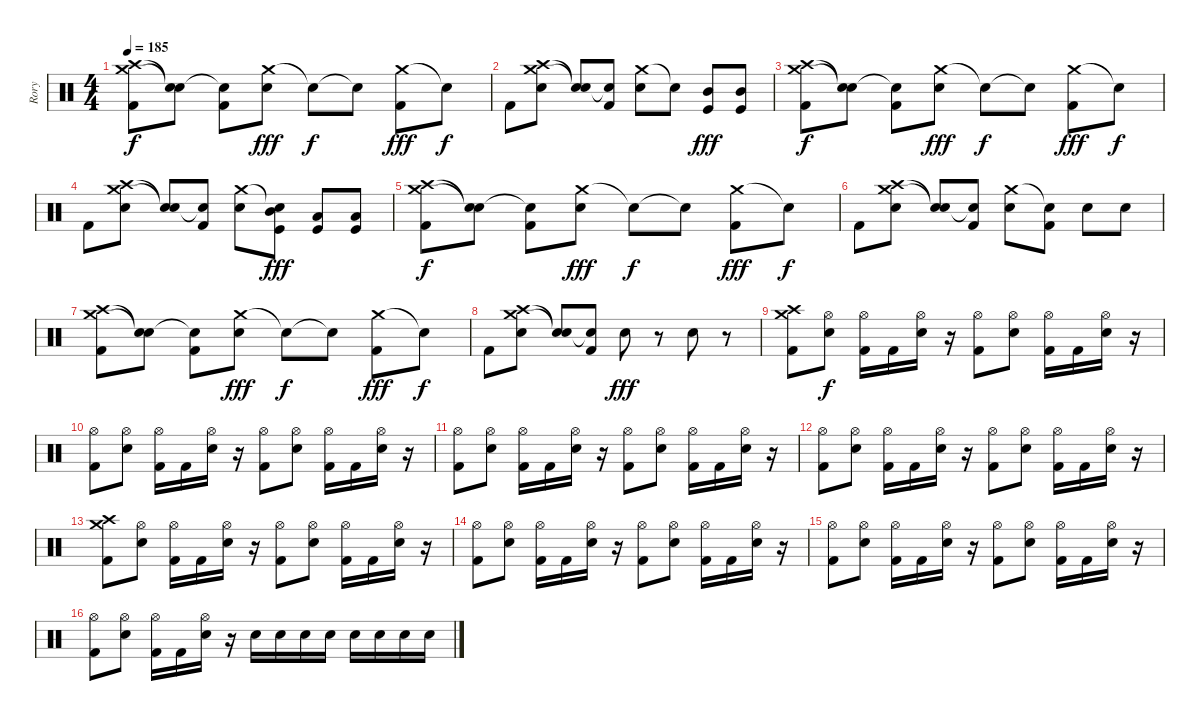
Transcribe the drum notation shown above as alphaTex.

\track ("Rory" "Rory") {instrument percussion}
\staff {score}
\articulation defaults
\ts (4 4)
\tempo 185
\clef neutral
\ks c
("Crash medium (hit)" "Crash high (hit)" "Kick (hit) 2").8{dy f} ("Snare (hit)"{t} "Snare (hit)"{t}).8 ("Snare (hit)"{t} "Kick (hit) 2").8 ("Crash medium (hit)" "Electric Snare (hit)").8{dy fff} "Snare (hit)"{t}.8{dy f} "Snare (hit)"{t}.8 ("Crash medium (hit)" "Kick (hit) 2").8{dy fff} "Snare (hit)"{t}.8{dy f} |
"Kick (hit) 2".8 ("Crash medium (hit)" "Crash high (hit)" "Electric Snare (hit)").8 ("Snare (hit)"{t} "Snare (hit)"{t}).8 ("Snare (hit)"{t} "Kick (hit) 2").8 ("Crash medium (hit)" "Electric Snare (hit)").8 "Snare (hit)"{t}.8 ("Mid Tom (hit)" "Kick (hit)").8{dy fff} ("Mid Tom (hit)" "Kick (hit)").8 |
("Crash medium (hit)" "Crash high (hit)" "Kick (hit) 2").8{dy f} ("Snare (hit)"{t} "Snare (hit)"{t}).8 ("Snare (hit)"{t} "Kick (hit) 2").8 ("Crash medium (hit)" "Electric Snare (hit)").8{dy fff} "Snare (hit)"{t}.8{dy f} "Snare (hit)"{t}.8 ("Crash medium (hit)" "Kick (hit) 2").8{dy fff} "Snare (hit)"{t}.8{dy f} |
"Kick (hit) 2".8 ("Crash medium (hit)" "Crash high (hit)" "Electric Snare (hit)").8 ("Snare (hit)"{t} "Snare (hit)"{t}).8 ("Snare (hit)"{t} "Kick (hit) 2").8 ("Crash medium (hit)" "Electric Snare (hit)").8 ("Snare (hit)"{t} "Mid Tom (hit)" "Kick (hit)").8{dy fff} ("Low Tom (hit)" "Kick (hit)").8 ("Low Tom (hit)" "Kick (hit)").8 |
("Crash medium (hit)" "Crash high (hit)" "Kick (hit) 2").8{dy f} ("Snare (hit)"{t} "Snare (hit)"{t}).8 ("Snare (hit)"{t} "Kick (hit) 2").8 ("Crash medium (hit)" "Electric Snare (hit)").8{dy fff} "Snare (hit)"{t}.8{dy f} "Snare (hit)"{t}.8 ("Crash medium (hit)" "Kick (hit) 2").8{dy fff} "Snare (hit)"{t}.8{dy f} |
"Kick (hit) 2".8 ("Crash medium (hit)" "Crash high (hit)" "Electric Snare (hit)").8 ("Snare (hit)"{t} "Snare (hit)"{t}).8 ("Snare (hit)"{t} "Kick (hit) 2").8 ("Crash medium (hit)" "Electric Snare (hit)").8 ("Snare (hit)"{t} "Kick (hit) 2").8 "Electric Snare (hit)".8 "Electric Snare (hit)".8 |
("Crash medium (hit)" "Crash high (hit)" "Kick (hit) 2").8 ("Snare (hit)"{t} "Snare (hit)"{t}).8 ("Snare (hit)"{t} "Kick (hit) 2").8 ("Crash medium (hit)" "Electric Snare (hit)").8{dy fff} "Snare (hit)"{t}.8{dy f} "Snare (hit)"{t}.8 ("Crash medium (hit)" "Kick (hit) 2").8{dy fff} "Snare (hit)"{t}.8{dy f} |
"Kick (hit) 2".8 ("Crash medium (hit)" "Crash high (hit)" "Electric Snare (hit)").8 ("Snare (hit)"{t} "Snare (hit)"{t}).8 ("Snare (hit)"{t} "Kick (hit) 2").8 "Electric Snare (hit)".8{dy fff} r.8 "Electric Snare (hit)".8 r.8 |
("Crash medium (hit)" "Crash high (hit)" "Kick (hit) 2").8 ("Hi-Hat (open)" "Electric Snare (hit)").8{dy f} ("Hi-Hat (open)" "Kick (hit) 2").16 "Kick (hit) 2".16 ("Hi-Hat (open)" "Electric Snare (hit)").16 r.16 ("Hi-Hat (open)" "Kick (hit) 2").8 ("Hi-Hat (open)" "Electric Snare (hit)").8 ("Hi-Hat (open)" "Kick (hit) 2").16 "Kick (hit) 2".16 ("Hi-Hat (open)" "Electric Snare (hit)").16 r.16 |
("Hi-Hat (open)" "Kick (hit) 2").8 ("Hi-Hat (open)" "Electric Snare (hit)").8 ("Hi-Hat (open)" "Kick (hit) 2").16 "Kick (hit) 2".16 ("Hi-Hat (open)" "Electric Snare (hit)").16 r.16 ("Hi-Hat (open)" "Kick (hit) 2").8 ("Hi-Hat (open)" "Electric Snare (hit)").8 ("Hi-Hat (open)" "Kick (hit) 2").16 "Kick (hit) 2".16 ("Hi-Hat (open)" "Electric Snare (hit)").16 r.16 |
("Hi-Hat (open)" "Kick (hit) 2").8 ("Hi-Hat (open)" "Electric Snare (hit)").8 ("Hi-Hat (open)" "Kick (hit) 2").16 "Kick (hit) 2".16 ("Hi-Hat (open)" "Electric Snare (hit)").16 r.16 ("Hi-Hat (open)" "Kick (hit) 2").8 ("Hi-Hat (open)" "Electric Snare (hit)").8 ("Hi-Hat (open)" "Kick (hit) 2").16 "Kick (hit) 2".16 ("Hi-Hat (open)" "Electric Snare (hit)").16 r.16 |
("Hi-Hat (open)" "Kick (hit) 2").8 ("Hi-Hat (open)" "Electric Snare (hit)").8 ("Hi-Hat (open)" "Kick (hit) 2").16 "Kick (hit) 2".16 ("Hi-Hat (open)" "Electric Snare (hit)").16 r.16 ("Hi-Hat (open)" "Kick (hit) 2").8 ("Hi-Hat (open)" "Electric Snare (hit)").8 ("Hi-Hat (open)" "Kick (hit) 2").16 "Kick (hit) 2".16 ("Hi-Hat (open)" "Electric Snare (hit)").16 r.16 |
("Crash medium (hit)" "Crash high (hit)" "Kick (hit) 2").8 ("Hi-Hat (open)" "Electric Snare (hit)").8 ("Hi-Hat (open)" "Kick (hit) 2").16 "Kick (hit) 2".16 ("Hi-Hat (open)" "Electric Snare (hit)").16 r.16 ("Hi-Hat (open)" "Kick (hit) 2").8 ("Hi-Hat (open)" "Electric Snare (hit)").8 ("Hi-Hat (open)" "Kick (hit) 2").16 "Kick (hit) 2".16 ("Hi-Hat (open)" "Electric Snare (hit)").16 r.16 |
("Hi-Hat (open)" "Kick (hit) 2").8 ("Hi-Hat (open)" "Electric Snare (hit)").8 ("Hi-Hat (open)" "Kick (hit) 2").16 "Kick (hit) 2".16 ("Hi-Hat (open)" "Electric Snare (hit)").16 r.16 ("Hi-Hat (open)" "Kick (hit) 2").8 ("Hi-Hat (open)" "Electric Snare (hit)").8 ("Hi-Hat (open)" "Kick (hit) 2").16 "Kick (hit) 2".16 ("Hi-Hat (open)" "Electric Snare (hit)").16 r.16 |
("Hi-Hat (open)" "Kick (hit) 2").8 ("Hi-Hat (open)" "Electric Snare (hit)").8 ("Hi-Hat (open)" "Kick (hit) 2").16 "Kick (hit) 2".16 ("Hi-Hat (open)" "Electric Snare (hit)").16 r.16 ("Hi-Hat (open)" "Kick (hit) 2").8 ("Hi-Hat (open)" "Electric Snare (hit)").8 ("Hi-Hat (open)" "Kick (hit) 2").16 "Kick (hit) 2".16 ("Hi-Hat (open)" "Electric Snare (hit)").16 r.16 |
("Hi-Hat (open)" "Kick (hit) 2").8 ("Hi-Hat (open)" "Electric Snare (hit)").8 ("Hi-Hat (open)" "Kick (hit) 2").16 "Kick (hit) 2".16 ("Hi-Hat (open)" "Electric Snare (hit)").16 r.16 "Electric Snare (hit)".16 "Electric Snare (hit)".16 "Electric Snare (hit)".16 "Electric Snare (hit)".16 "Electric Snare (hit)".16 "Electric Snare (hit)".16 "Electric Snare (hit)".16 "Electric Snare (hit)".16
